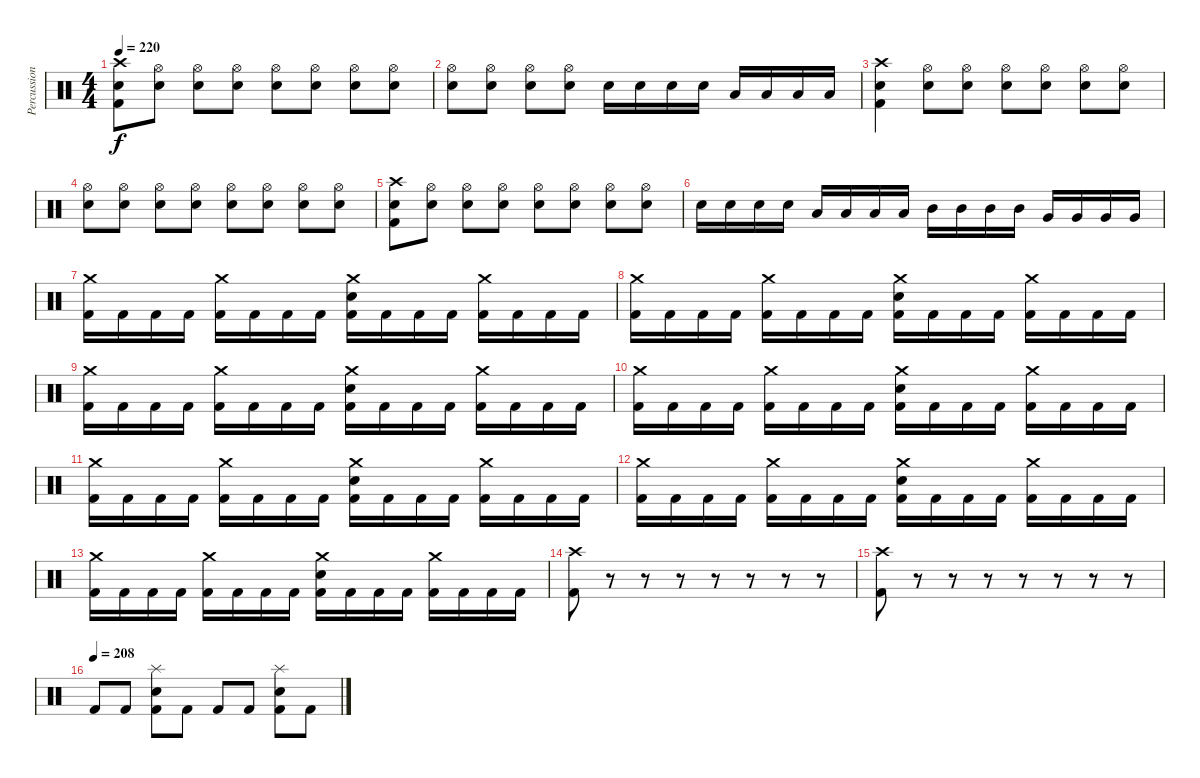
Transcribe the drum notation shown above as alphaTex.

\track ("Percussion" "Percussion") {instrument percussion}
\staff {score}
\articulation defaults
\ts (4 4)
\tempo 220
\clef neutral
\ks c
("Crash high (hit)" "Electric Snare (hit)" "Kick (hit) 2").8{dy f} ("Hi-Hat (open)" "Electric Snare (hit)").8 ("Hi-Hat (open)" "Electric Snare (hit)").8 ("Hi-Hat (open)" "Electric Snare (hit)").8 ("Hi-Hat (open)" "Electric Snare (hit)").8 ("Hi-Hat (open)" "Electric Snare (hit)").8 ("Hi-Hat (open)" "Electric Snare (hit)").8 ("Hi-Hat (open)" "Electric Snare (hit)").8 |
("Hi-Hat (open)" "Electric Snare (hit)").8 ("Hi-Hat (open)" "Electric Snare (hit)").8 ("Hi-Hat (open)" "Electric Snare (hit)").8 ("Hi-Hat (open)" "Electric Snare (hit)").8 "Electric Snare (hit)".16 "Electric Snare (hit)".16 "Electric Snare (hit)".16 "Electric Snare (hit)".16 "Low Tom (hit)".16 "Low Tom (hit)".16 "Low Tom (hit)".16 "Low Tom (hit)".16 |
("Crash high (hit)" "Electric Snare (hit)" "Kick (hit) 2").4 ("Hi-Hat (open)" "Electric Snare (hit)").8 ("Hi-Hat (open)" "Electric Snare (hit)").8 ("Hi-Hat (open)" "Electric Snare (hit)").8 ("Hi-Hat (open)" "Electric Snare (hit)").8 ("Hi-Hat (open)" "Electric Snare (hit)").8 ("Hi-Hat (open)" "Electric Snare (hit)").8 |
("Hi-Hat (open)" "Electric Snare (hit)").8 ("Hi-Hat (open)" "Electric Snare (hit)").8 ("Hi-Hat (open)" "Electric Snare (hit)").8 ("Hi-Hat (open)" "Electric Snare (hit)").8 ("Hi-Hat (open)" "Electric Snare (hit)").8 ("Hi-Hat (open)" "Electric Snare (hit)").8 ("Hi-Hat (open)" "Electric Snare (hit)").8 ("Hi-Hat (open)" "Electric Snare (hit)").8 |
("Crash high (hit)" "Electric Snare (hit)" "Kick (hit) 2").8 ("Hi-Hat (open)" "Electric Snare (hit)").8 ("Hi-Hat (open)" "Electric Snare (hit)").8 ("Hi-Hat (open)" "Electric Snare (hit)").8 ("Hi-Hat (open)" "Electric Snare (hit)").8 ("Hi-Hat (open)" "Electric Snare (hit)").8 ("Hi-Hat (open)" "Electric Snare (hit)").8 ("Hi-Hat (open)" "Electric Snare (hit)").8 |
"Electric Snare (hit)".16 "Electric Snare (hit)".16 "Electric Snare (hit)".16 "Electric Snare (hit)".16 "Low Tom (hit)".16 "Low Tom (hit)".16 "Low Tom (hit)".16 "Low Tom (hit)".16 "Mid Tom (hit)".16 "Mid Tom (hit)".16 "Mid Tom (hit)".16 "Mid Tom (hit)".16 "Very Low Tom (hit)".16 "Very Low Tom (hit)".16 "Very Low Tom (hit)".16 "Very Low Tom (hit)".16 |
("Crash medium (hit)" "Kick (hit) 2").16 "Kick (hit) 2".16 "Kick (hit) 2".16 "Kick (hit) 2".16 ("Crash medium (hit)" "Kick (hit) 2").16 "Kick (hit) 2".16 "Kick (hit) 2".16 "Kick (hit) 2".16 ("Crash medium (hit)" "Electric Snare (hit)" "Kick (hit) 2").16 "Kick (hit) 2".16 "Kick (hit) 2".16 "Kick (hit) 2".16 ("Crash medium (hit)" "Kick (hit) 2").16 "Kick (hit) 2".16 "Kick (hit) 2".16 "Kick (hit) 2".16 |
("Crash medium (hit)" "Kick (hit) 2").16 "Kick (hit) 2".16 "Kick (hit) 2".16 "Kick (hit) 2".16 ("Crash medium (hit)" "Kick (hit) 2").16 "Kick (hit) 2".16 "Kick (hit) 2".16 "Kick (hit) 2".16 ("Crash medium (hit)" "Electric Snare (hit)" "Kick (hit) 2").16 "Kick (hit) 2".16 "Kick (hit) 2".16 "Kick (hit) 2".16 ("Crash medium (hit)" "Kick (hit) 2").16 "Kick (hit) 2".16 "Kick (hit) 2".16 "Kick (hit) 2".16 |
("Crash medium (hit)" "Kick (hit) 2").16 "Kick (hit) 2".16 "Kick (hit) 2".16 "Kick (hit) 2".16 ("Crash medium (hit)" "Kick (hit) 2").16 "Kick (hit) 2".16 "Kick (hit) 2".16 "Kick (hit) 2".16 ("Crash medium (hit)" "Electric Snare (hit)" "Kick (hit) 2").16 "Kick (hit) 2".16 "Kick (hit) 2".16 "Kick (hit) 2".16 ("Crash medium (hit)" "Kick (hit) 2").16 "Kick (hit) 2".16 "Kick (hit) 2".16 "Kick (hit) 2".16 |
("Crash medium (hit)" "Kick (hit) 2").16 "Kick (hit) 2".16 "Kick (hit) 2".16 "Kick (hit) 2".16 ("Crash medium (hit)" "Kick (hit) 2").16 "Kick (hit) 2".16 "Kick (hit) 2".16 "Kick (hit) 2".16 ("Crash medium (hit)" "Electric Snare (hit)" "Kick (hit) 2").16 "Kick (hit) 2".16 "Kick (hit) 2".16 "Kick (hit) 2".16 ("Crash medium (hit)" "Kick (hit) 2").16 "Kick (hit) 2".16 "Kick (hit) 2".16 "Kick (hit) 2".16 |
("Crash medium (hit)" "Kick (hit) 2").16 "Kick (hit) 2".16 "Kick (hit) 2".16 "Kick (hit) 2".16 ("Crash medium (hit)" "Kick (hit) 2").16 "Kick (hit) 2".16 "Kick (hit) 2".16 "Kick (hit) 2".16 ("Crash medium (hit)" "Electric Snare (hit)" "Kick (hit) 2").16 "Kick (hit) 2".16 "Kick (hit) 2".16 "Kick (hit) 2".16 ("Crash medium (hit)" "Kick (hit) 2").16 "Kick (hit) 2".16 "Kick (hit) 2".16 "Kick (hit) 2".16 |
("Crash medium (hit)" "Kick (hit) 2").16 "Kick (hit) 2".16 "Kick (hit) 2".16 "Kick (hit) 2".16 ("Crash medium (hit)" "Kick (hit) 2").16 "Kick (hit) 2".16 "Kick (hit) 2".16 "Kick (hit) 2".16 ("Crash medium (hit)" "Electric Snare (hit)" "Kick (hit) 2").16 "Kick (hit) 2".16 "Kick (hit) 2".16 "Kick (hit) 2".16 ("Crash medium (hit)" "Kick (hit) 2").16 "Kick (hit) 2".16 "Kick (hit) 2".16 "Kick (hit) 2".16 |
("Crash medium (hit)" "Kick (hit) 2").16 "Kick (hit) 2".16 "Kick (hit) 2".16 "Kick (hit) 2".16 ("Crash medium (hit)" "Kick (hit) 2").16 "Kick (hit) 2".16 "Kick (hit) 2".16 "Kick (hit) 2".16 ("Crash medium (hit)" "Electric Snare (hit)" "Kick (hit) 2").16 "Kick (hit) 2".16 "Kick (hit) 2".16 "Kick (hit) 2".16 ("Crash medium (hit)" "Kick (hit) 2").16 "Kick (hit) 2".16 "Kick (hit) 2".16 "Kick (hit) 2".16 |
("Crash high (hit)" "Kick (hit) 2").8 r.8 r.8 r.8 r.8 r.8 r.8 r.8 |
("Crash high (hit)" "Kick (hit) 2").8 r.8 r.8 r.8 r.8 r.8 r.8 r.8 |
\tempo (208)
"Kick (hit) 2".8 "Kick (hit) 2".8 ("Splash (hit)" "Electric Snare (hit)" "Kick (hit) 2").8 "Kick (hit) 2".8 "Kick (hit) 2".8 "Kick (hit) 2".8 ("Splash (hit)" "Electric Snare (hit)" "Kick (hit) 2").8 "Kick (hit) 2".8
